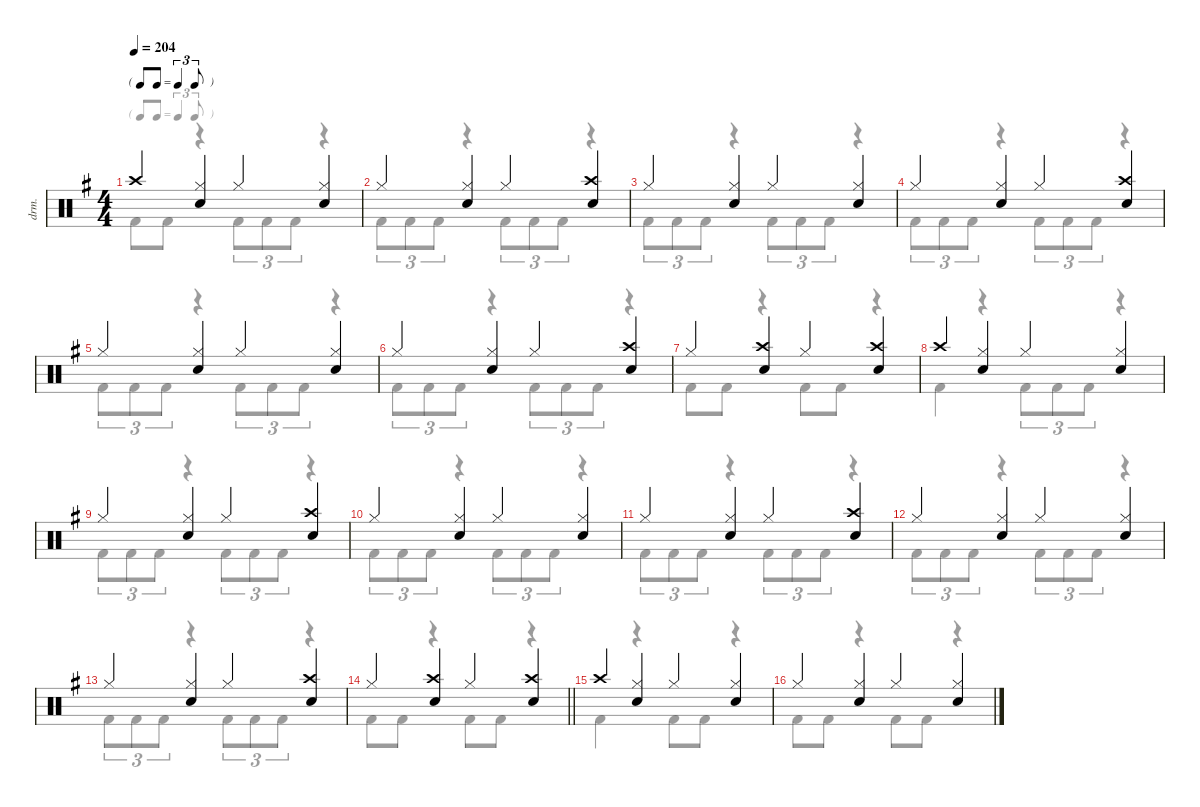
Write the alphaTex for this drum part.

\defaultSystemsLayout 4
\hideDynamics
\bracketExtendMode nobrackets
\otherSystemsTrackNameOrientation horizontal
\track ("Lars Ulrich" "drm.") {defaultSystemsLayout 8 instrument percussion}
\staff {score}
\articulation defaults
\voice
\ts (4 4)
\tf triplet8th
\tempo 204
\clef neutral
\ks eminor "Crash high (hit)"{acc forcenatural}.4{dy f beam Up}
("Hi-Hat (closed)"{acc forcenatural} "Snare (hit) 2"{acc forcenatural}).4{beam Up} "Hi-Hat (closed)"{acc forcenatural}.4{beam Up} ("Hi-Hat (closed)"{acc forcenatural} "Snare (hit) 2"{acc forcenatural}).4{beam Up} |
"Hi-Hat (closed)"{acc forcenatural}.4{beam Up} ("Hi-Hat (closed)"{acc forcenatural} "Snare (hit) 2"{acc forcenatural}).4{beam Up} "Hi-Hat (closed)"{acc forcenatural}.4{beam Up} ("Crash high (hit)"{acc forcenatural} "Snare (hit) 2"{acc forcenatural}).4{beam Up} |
"Hi-Hat (closed)"{acc forcenatural}.4{beam Up} ("Hi-Hat (closed)"{acc forcenatural} "Snare (hit) 2"{acc forcenatural}).4{beam Up} "Hi-Hat (closed)"{acc forcenatural}.4{beam Up} ("Hi-Hat (closed)"{acc forcenatural} "Snare (hit) 2"{acc forcenatural}).4{beam Up} |
"Hi-Hat (closed)"{acc forcenatural}.4{beam Up} ("Hi-Hat (closed)"{acc forcenatural} "Snare (hit) 2"{acc forcenatural}).4{beam Up} "Hi-Hat (closed)"{acc forcenatural}.4{beam Up} ("Crash high (hit)"{acc forcenatural} "Snare (hit) 2"{acc forcenatural}).4{beam Up} |
"Hi-Hat (closed)"{acc forcenatural}.4{beam Up} ("Hi-Hat (closed)"{acc forcenatural} "Snare (hit) 2"{acc forcenatural}).4{beam Up} "Hi-Hat (closed)"{acc forcenatural}.4{beam Up} ("Hi-Hat (closed)"{acc forcenatural} "Snare (hit) 2"{acc forcenatural}).4{beam Up} |
"Hi-Hat (closed)"{acc forcenatural}.4{beam Up} ("Hi-Hat (closed)"{acc forcenatural} "Snare (hit) 2"{acc forcenatural}).4{beam Up} "Hi-Hat (closed)"{acc forcenatural}.4{beam Up} ("Crash high (hit)"{acc forcenatural} "Snare (hit) 2"{acc forcenatural}).4{beam Up} |
"Hi-Hat (closed)"{acc forcenatural}.4{beam Up} ("Crash high (hit)"{acc forcenatural} "Snare (hit) 2"{acc forcenatural}).4{beam Up} "Hi-Hat (closed)"{acc forcenatural}.4{beam Up} ("Crash high (hit)"{acc forcenatural} "Snare (hit) 2"{acc forcenatural}).4{beam Up} |
"Crash high (hit)"{acc forcenatural}.4{beam Up} ("Hi-Hat (closed)"{acc forcenatural} "Snare (hit) 2"{acc forcenatural}).4{beam Up} "Hi-Hat (closed)"{acc forcenatural}.4{beam Up} ("Hi-Hat (closed)"{acc forcenatural} "Snare (hit) 2"{acc forcenatural}).4{beam Up} |
"Hi-Hat (closed)"{acc forcenatural}.4{beam Up} ("Hi-Hat (closed)"{acc forcenatural} "Snare (hit) 2"{acc forcenatural}).4{beam Up} "Hi-Hat (closed)"{acc forcenatural}.4{beam Up} ("Crash high (hit)"{acc forcenatural} "Snare (hit) 2"{acc forcenatural}).4{beam Up} |
"Hi-Hat (closed)"{acc forcenatural}.4{beam Up} ("Hi-Hat (closed)"{acc forcenatural} "Snare (hit) 2"{acc forcenatural}).4{beam Up} "Hi-Hat (closed)"{acc forcenatural}.4{beam Up} ("Hi-Hat (closed)"{acc forcenatural} "Snare (hit) 2"{acc forcenatural}).4{beam Up} |
"Hi-Hat (closed)"{acc forcenatural}.4{beam Up} ("Hi-Hat (closed)"{acc forcenatural} "Snare (hit) 2"{acc forcenatural}).4{beam Up} "Hi-Hat (closed)"{acc forcenatural}.4{beam Up} ("Crash high (hit)"{acc forcenatural} "Snare (hit) 2"{acc forcenatural}).4{beam Up} |
"Hi-Hat (closed)"{acc forcenatural}.4{beam Up} ("Hi-Hat (closed)"{acc forcenatural} "Snare (hit) 2"{acc forcenatural}).4{beam Up} "Hi-Hat (closed)"{acc forcenatural}.4{beam Up} ("Hi-Hat (closed)"{acc forcenatural} "Snare (hit) 2"{acc forcenatural}).4{beam Up} |
"Hi-Hat (closed)"{acc forcenatural}.4{beam Up} ("Hi-Hat (closed)"{acc forcenatural} "Snare (hit) 2"{acc forcenatural}).4{beam Up} "Hi-Hat (closed)"{acc forcenatural}.4{beam Up} ("Crash high (hit)"{acc forcenatural} "Snare (hit) 2"{acc forcenatural}).4{beam Up} |
\barLineRight lightlight "Hi-Hat (closed)"{acc forcenatural}.4{beam Up}
("Crash high (hit)"{acc forcenatural} "Snare (hit) 2"{acc forcenatural}).4{beam Up} "Hi-Hat (closed)"{acc forcenatural}.4{beam Up} ("Crash high (hit)"{acc forcenatural} "Snare (hit) 2"{acc forcenatural}).4{beam Up} |
"Crash high (hit)"{acc forcenatural}.4{beam Up} ("Hi-Hat (closed)"{acc forcenatural} "Snare (hit) 2"{acc forcenatural}).4{beam Up} "Hi-Hat (closed)"{acc forcenatural}.4{beam Up} ("Hi-Hat (closed)"{acc forcenatural} "Snare (hit) 2"{acc forcenatural}).4{beam Up} |
"Hi-Hat (closed)"{acc forcenatural}.4{beam Up} ("Hi-Hat (closed)"{acc forcenatural} "Snare (hit) 2"{acc forcenatural}).4{beam Up} "Hi-Hat (closed)"{acc forcenatural}.4{beam Up} ("Hi-Hat (closed)"{acc forcenatural} "Snare (hit) 2"{acc forcenatural}).4{beam Up}
\voice
\clef neutral
\ottava regular
\simile none
\ks eminor "Kick (hit) 2"{acc forcenatural}.8{dy f beam Down} "Kick (hit) 2"{acc forcenatural}.8{beam Down}
r.4{beam Down} "Kick (hit) 2"{acc forcenatural}.8{tu (3 2) beam Down} "Kick (hit) 2"{acc forcenatural}.8{tu (3 2) beam Down} "Kick (hit) 2"{acc forcenatural}.8{tu (3 2) beam Down} r.4{beam Down} |
"Kick (hit) 2"{acc forcenatural}.8{tu (3 2) beam Down} "Kick (hit) 2"{acc forcenatural}.8{tu (3 2) beam Down} "Kick (hit) 2"{acc forcenatural}.8{tu (3 2) beam Down} r.4{beam Down} "Kick (hit) 2"{acc forcenatural}.8{tu (3 2) beam Down} "Kick (hit) 2"{acc forcenatural}.8{tu (3 2) beam Down} "Kick (hit) 2"{acc forcenatural}.8{tu (3 2) beam Down} r.4{beam Down} |
"Kick (hit) 2"{acc forcenatural}.8{tu (3 2) beam Down} "Kick (hit) 2"{acc forcenatural}.8{tu (3 2) beam Down} "Kick (hit) 2"{acc forcenatural}.8{tu (3 2) beam Down} r.4{beam Down} "Kick (hit) 2"{acc forcenatural}.8{tu (3 2) beam Down} "Kick (hit) 2"{acc forcenatural}.8{tu (3 2) beam Down} "Kick (hit) 2"{acc forcenatural}.8{tu (3 2) beam Down} r.4{beam Down} |
"Kick (hit) 2"{acc forcenatural}.8{tu (3 2) beam Down} "Kick (hit) 2"{acc forcenatural}.8{tu (3 2) beam Down} "Kick (hit) 2"{acc forcenatural}.8{tu (3 2) beam Down} r.4{beam Down} "Kick (hit) 2"{acc forcenatural}.8{tu (3 2) beam Down} "Kick (hit) 2"{acc forcenatural}.8{tu (3 2) beam Down} "Kick (hit) 2"{acc forcenatural}.8{tu (3 2) beam Down} r.4{beam Down} |
"Kick (hit) 2"{acc forcenatural}.8{tu (3 2) beam Down} "Kick (hit) 2"{acc forcenatural}.8{tu (3 2) beam Down} "Kick (hit) 2"{acc forcenatural}.8{tu (3 2) beam Down} r.4{beam Down} "Kick (hit) 2"{acc forcenatural}.8{tu (3 2) beam Down} "Kick (hit) 2"{acc forcenatural}.8{tu (3 2) beam Down} "Kick (hit) 2"{acc forcenatural}.8{tu (3 2) beam Down} r.4{beam Down} |
"Kick (hit) 2"{acc forcenatural}.8{tu (3 2) beam Down} "Kick (hit) 2"{acc forcenatural}.8{tu (3 2) beam Down} "Kick (hit) 2"{acc forcenatural}.8{tu (3 2) beam Down} r.4{beam Down} "Kick (hit) 2"{acc forcenatural}.8{tu (3 2) beam Down} "Kick (hit) 2"{acc forcenatural}.8{tu (3 2) beam Down} "Kick (hit) 2"{acc forcenatural}.8{tu (3 2) beam Down} r.4{beam Down} |
"Kick (hit) 2"{acc forcenatural}.8{beam Down} "Kick (hit) 2"{acc forcenatural}.8{beam Down} r.4{beam Down} "Kick (hit) 2"{acc forcenatural}.8{beam Down} "Kick (hit) 2"{acc forcenatural}.8{beam Down} r.4{beam Down} |
"Kick (hit) 2"{acc forcenatural}.4{beam Down} r.4{beam Down} "Kick (hit) 2"{acc forcenatural}.8{tu (3 2) beam Down} "Kick (hit) 2"{acc forcenatural}.8{tu (3 2) beam Down} "Kick (hit) 2"{acc forcenatural}.8{tu (3 2) beam Down} r.4{beam Down} |
"Kick (hit) 2"{acc forcenatural}.8{tu (3 2) beam Down} "Kick (hit) 2"{acc forcenatural}.8{tu (3 2) beam Down} "Kick (hit) 2"{acc forcenatural}.8{tu (3 2) beam Down} r.4{beam Down} "Kick (hit) 2"{acc forcenatural}.8{tu (3 2) beam Down} "Kick (hit) 2"{acc forcenatural}.8{tu (3 2) beam Down} "Kick (hit) 2"{acc forcenatural}.8{tu (3 2) beam Down} r.4{beam Down} |
"Kick (hit) 2"{acc forcenatural}.8{tu (3 2) beam Down} "Kick (hit) 2"{acc forcenatural}.8{tu (3 2) beam Down} "Kick (hit) 2"{acc forcenatural}.8{tu (3 2) beam Down} r.4{beam Down} "Kick (hit) 2"{acc forcenatural}.8{tu (3 2) beam Down} "Kick (hit) 2"{acc forcenatural}.8{tu (3 2) beam Down} "Kick (hit) 2"{acc forcenatural}.8{tu (3 2) beam Down} r.4{beam Down} |
"Kick (hit) 2"{acc forcenatural}.8{tu (3 2) beam Down} "Kick (hit) 2"{acc forcenatural}.8{tu (3 2) beam Down} "Kick (hit) 2"{acc forcenatural}.8{tu (3 2) beam Down} r.4{beam Down} "Kick (hit) 2"{acc forcenatural}.8{tu (3 2) beam Down} "Kick (hit) 2"{acc forcenatural}.8{tu (3 2) beam Down} "Kick (hit) 2"{acc forcenatural}.8{tu (3 2) beam Down} r.4{beam Down} |
"Kick (hit) 2"{acc forcenatural}.8{tu (3 2) beam Down} "Kick (hit) 2"{acc forcenatural}.8{tu (3 2) beam Down} "Kick (hit) 2"{acc forcenatural}.8{tu (3 2) beam Down} r.4{beam Down} "Kick (hit) 2"{acc forcenatural}.8{tu (3 2) beam Down} "Kick (hit) 2"{acc forcenatural}.8{tu (3 2) beam Down} "Kick (hit) 2"{acc forcenatural}.8{tu (3 2) beam Down} r.4{beam Down} |
"Kick (hit) 2"{acc forcenatural}.8{tu (3 2) beam Down} "Kick (hit) 2"{acc forcenatural}.8{tu (3 2) beam Down} "Kick (hit) 2"{acc forcenatural}.8{tu (3 2) beam Down} r.4{beam Down} "Kick (hit) 2"{acc forcenatural}.8{tu (3 2) beam Down} "Kick (hit) 2"{acc forcenatural}.8{tu (3 2) beam Down} "Kick (hit) 2"{acc forcenatural}.8{tu (3 2) beam Down} r.4{beam Down} |
\barLineRight lightlight "Kick (hit) 2"{acc forcenatural}.8{beam Down} "Kick (hit) 2"{acc forcenatural}.8{beam Down}
r.4{beam Down} "Kick (hit) 2"{acc forcenatural}.8{beam Down} "Kick (hit) 2"{acc forcenatural}.8{beam Down} r.4{beam Down} |
"Kick (hit) 2"{acc forcenatural}.4{beam Down} r.4{beam Down} "Kick (hit) 2"{acc forcenatural}.8{beam Down} "Kick (hit) 2"{acc forcenatural}.8{beam Down} r.4{beam Down} |
"Kick (hit) 2"{acc forcenatural}.8{beam Down} "Kick (hit) 2"{acc forcenatural}.8{beam Down} r.4{beam Down} "Kick (hit) 2"{acc forcenatural}.8{beam Down} "Kick (hit) 2"{acc forcenatural}.8{beam Down} r.4{beam Down}
